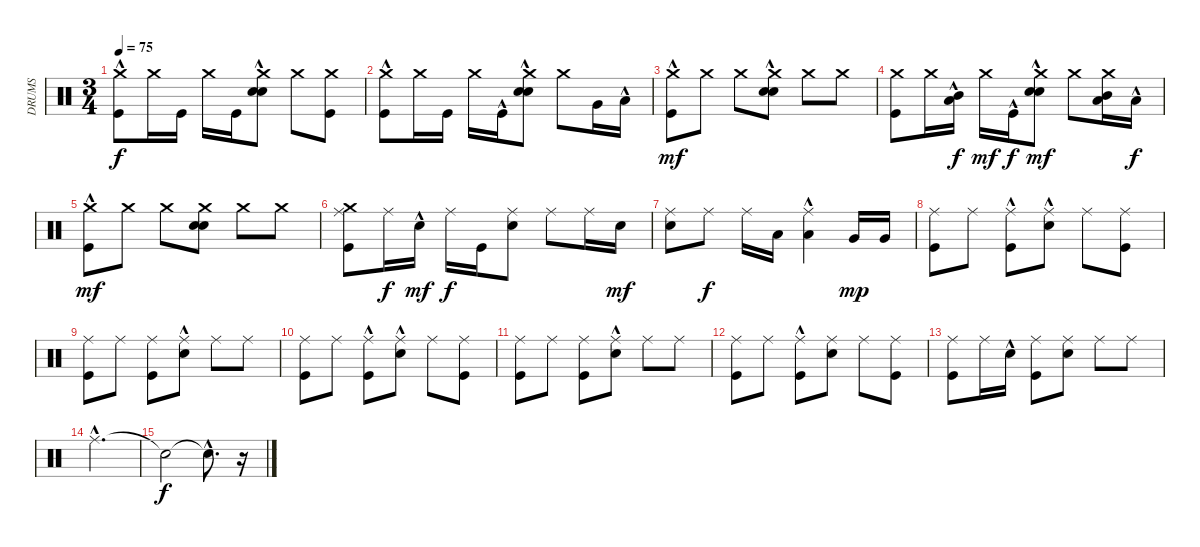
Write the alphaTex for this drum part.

\track ("DRUMS" "DRUMS") {instrument percussion}
\staff {score}
\articulation defaults
\ts (3 4)
\tempo 75
\clef neutral
\ks c
("Kick (hit)"{hac} "Crash medium (hit)").8{dy f} "Crash medium (hit)".16 "Kick (hit)".16 "Crash medium (hit)".16 "Kick (hit)".16 ("Snare (hit) 2"{hac} "Snare (hit) 2"{hac} "Crash medium (hit)").8 "Crash medium (hit)".8 ("Kick (hit)" "Crash medium (hit)").8 |
("Kick (hit)"{hac} "Crash medium (hit)").8 "Crash medium (hit)".16 "Kick (hit)".16 "Crash medium (hit)".16 "Kick (hit)"{hac}.16 ("Snare (hit) 2"{hac} "Snare (hit) 2"{hac} "Crash medium (hit)").8 "Crash medium (hit)".8 "Very Low Tom (hit)".16 "Low Floor Tom (hit)"{hac}.16 |
("Kick (hit)"{hac} "Crash medium (hit)").8{dy mf} "Crash medium (hit)".8 "Crash medium (hit)".8 ("Snare (hit) 2"{hac} "Snare (hit) 2"{hac} "Crash medium (hit)").8 "Crash medium (hit)".8 "Crash medium (hit)".8 |
("Kick (hit)" "Crash medium (hit)").8 "Crash medium (hit)".16 ("Low Floor Tom (hit)"{hac} "Mid Tom (hit)"{hac}).16{dy f} "Crash medium (hit)".16{dy mf} "Kick (hit)"{hac}.16{dy f} ("Snare (hit) 2"{hac} "Snare (hit) 2"{hac} "Crash medium (hit)").8{dy mf} "Crash medium (hit)".8 ("Low Floor Tom (hit)" "Mid Tom (hit)" "Crash medium (hit)").16 "Low Floor Tom (hit)"{hac}.16{dy f} |
("Kick (hit)"{hac} "Crash medium (hit)").8{dy mf} "Crash medium (hit)".8 "Crash medium (hit)".8 ("Snare (hit) 2" "Snare (hit) 2" "Crash medium (hit)").8 "Crash medium (hit)".8 "Crash medium (hit)".8 |
("Kick (hit)" "Ride (middle)" "Crash medium (hit)").8 "Ride (middle)".16{dy f} "Snare (hit) 2"{hac}.16{dy mf} "Ride (middle)".16{dy f} "Kick (hit)".16 ("Snare (hit) 2" "Ride (middle)").8 "Ride (middle)".8 "Ride (middle)".16 "Snare (hit) 2".16{dy mf} |
("Snare (hit) 2" "Ride (middle)").8 "Ride (middle)".8{dy f} "Ride (middle)".16 "Low Floor Tom (hit)".16 ("Low Floor Tom (hit)"{hac} "Ride (middle)"{hac}).4 "Very Low Tom (hit)".16{dy mp} "Very Low Tom (hit)".16 |
("Kick (hit)" "Ride (middle)").8 "Ride (middle)".8 ("Kick (hit)"{hac} "Ride (middle)").8 ("Electric Snare (hit)"{hac} "Ride (middle)").8 "Ride (middle)".8 ("Kick (hit)" "Ride (middle)").8 |
("Kick (hit)" "Ride (middle)").8 "Ride (middle)".8 ("Kick (hit)" "Ride (middle)").8 ("Electric Snare (hit)"{hac} "Ride (middle)").8 "Ride (middle)".8 "Ride (middle)".8 |
("Kick (hit)" "Ride (middle)").8 "Ride (middle)".8 ("Kick (hit)"{hac} "Ride (middle)").8 ("Electric Snare (hit)"{hac} "Ride (middle)").8 "Ride (middle)".8 ("Kick (hit)" "Ride (middle)").8 |
("Kick (hit)" "Ride (middle)").8 "Ride (middle)".8 ("Kick (hit)" "Ride (middle)").8 ("Electric Snare (hit)"{hac} "Ride (middle)").8 "Ride (middle)".8 "Ride (middle)".8 |
("Kick (hit)" "Ride (middle)").8 "Ride (middle)".8 ("Kick (hit)"{hac} "Ride (middle)").8 ("Electric Snare (hit)" "Ride (middle)").8 "Ride (middle)".8 ("Kick (hit)" "Ride (middle)").8 |
("Kick (hit)" "Ride (middle)").8 "Ride (middle)".16 "Electric Snare (hit)"{hac}.16 ("Kick (hit)" "Ride (middle)").8 ("Electric Snare (hit)" "Ride (middle)").8 "Ride (middle)".8 "Ride (middle)".8 |
"Ride (middle)"{hac}.2{d} |
"Snare (hit)"{t}.2{dy f} "Snare (hit)"{hac t}.8{d} r.16
